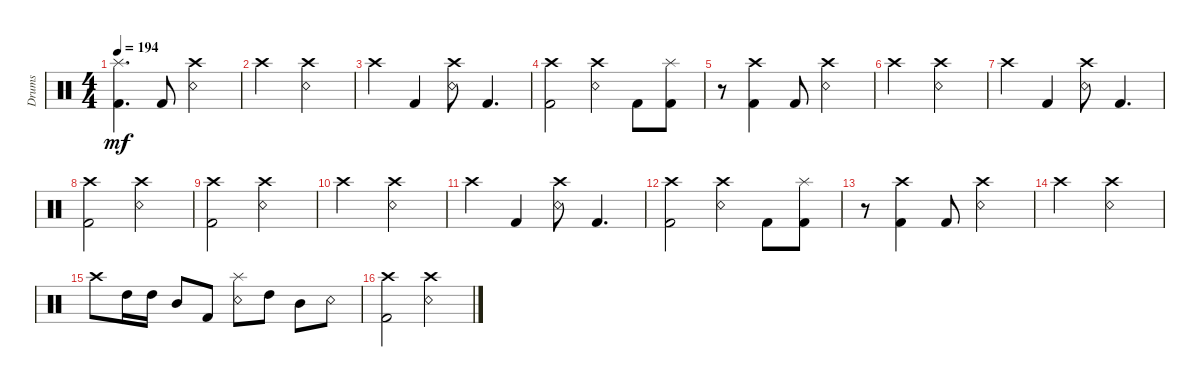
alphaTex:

\track ("Drums" "Drums") {instrument percussion}
\staff {score}
\articulation defaults
\ts (4 4)
\tempo 194
\clef neutral
\ks c
("Splash (hit)" "Kick (hit) 2").4{d dy mf} "Kick (hit) 2".8 ("Crash high (hit)" "Snare (rim shot)").2 |
"Crash high (hit)".2 ("Crash high (hit)" "Snare (rim shot)").2 |
"Crash high (hit)".4 "Kick (hit) 2".4 ("Crash high (hit)" "Snare (rim shot)").8 "Kick (hit) 2".4{d} |
("Crash high (hit)" "Kick (hit) 2").2 ("Crash high (hit)" "Snare (rim shot)").4 "Kick (hit) 2".8 ("Splash (hit)" "Kick (hit) 2").8 |
r.8 ("Crash high (hit)" "Kick (hit) 2").4 "Kick (hit) 2".8 ("Crash high (hit)" "Snare (rim shot)").2 |
"Crash high (hit)".2 ("Crash high (hit)" "Snare (rim shot)").2 |
"Crash high (hit)".4 "Kick (hit) 2".4 ("Crash high (hit)" "Snare (rim shot)").8 "Kick (hit) 2".4{d} |
("Crash high (hit)" "Kick (hit) 2").2 ("Crash high (hit)" "Snare (rim shot)").2 |
("Crash high (hit)" "Kick (hit) 2").2 ("Crash high (hit)" "Snare (rim shot)").2 |
"Crash high (hit)".2 ("Crash high (hit)" "Snare (rim shot)").2 |
"Crash high (hit)".4 "Kick (hit) 2".4 ("Crash high (hit)" "Snare (rim shot)").8 "Kick (hit) 2".4{d} |
("Crash high (hit)" "Kick (hit) 2").2 ("Crash high (hit)" "Snare (rim shot)").4 "Kick (hit) 2".8 ("Splash (hit)" "Kick (hit) 2").8 |
r.8 ("Crash high (hit)" "Kick (hit) 2").4 "Kick (hit) 2".8 ("Crash high (hit)" "Snare (rim shot)").2 |
"Crash high (hit)".2 ("Crash high (hit)" "Snare (rim shot)").2 |
"Crash high (hit)".8 "High Tom (hit)".16 "High Tom (hit)".16 "Mid Tom (hit)".8 "Kick (hit) 2".8 ("Splash (hit)" "Snare (rim shot)").8 "High Tom (hit)".8 "Mid Tom (hit)".8 "Snare (rim shot)".8 |
("Crash high (hit)" "Kick (hit) 2").2 ("Crash high (hit)" "Snare (rim shot)").2
